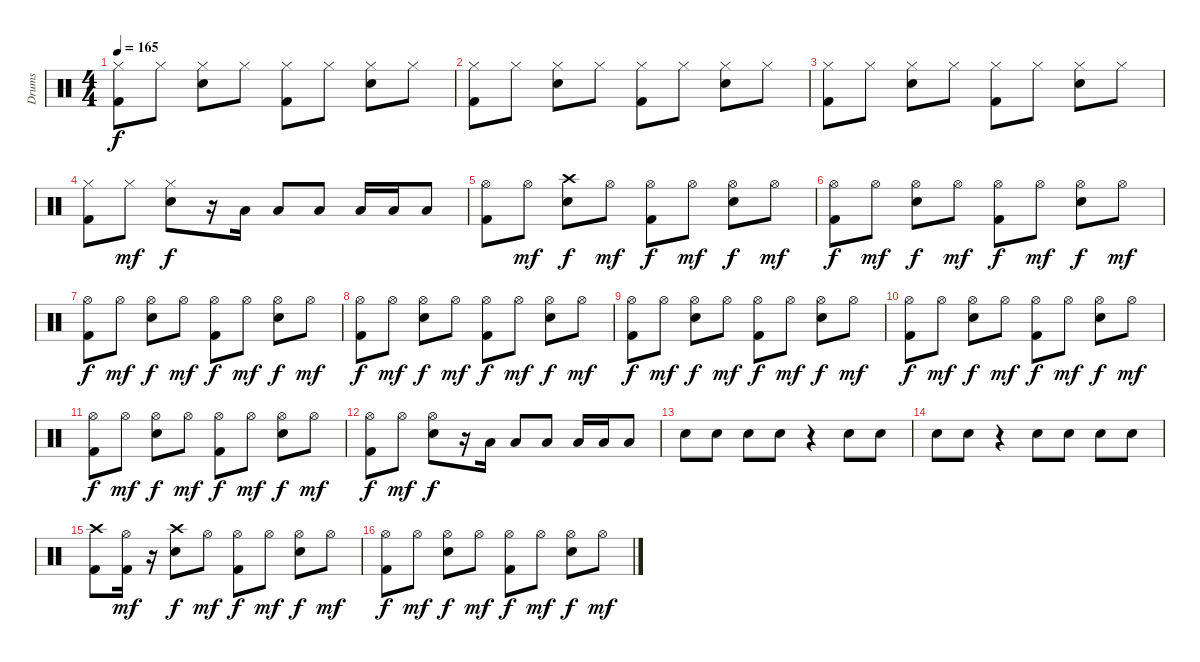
\track ("Drums" "Drums") {instrument percussion}
\staff {score}
\articulation defaults
\ts (4 4)
\tempo 165
\clef neutral
\ks c
("Hi-Hat (closed)" "Kick (hit) 2").8{dy f} "Hi-Hat (closed)".8 ("Hi-Hat (closed)" "Electric Snare (hit)").8 "Hi-Hat (closed)".8 ("Hi-Hat (closed)" "Kick (hit) 2").8 "Hi-Hat (closed)".8 ("Hi-Hat (closed)" "Electric Snare (hit)").8 "Hi-Hat (closed)".8 |
("Hi-Hat (closed)" "Kick (hit) 2").8 "Hi-Hat (closed)".8 ("Hi-Hat (closed)" "Electric Snare (hit)").8 "Hi-Hat (closed)".8 ("Hi-Hat (closed)" "Kick (hit) 2").8 "Hi-Hat (closed)".8 ("Hi-Hat (closed)" "Electric Snare (hit)").8 "Hi-Hat (closed)".8 |
("Hi-Hat (closed)" "Kick (hit) 2").8 "Hi-Hat (closed)".8 ("Hi-Hat (closed)" "Electric Snare (hit)").8 "Hi-Hat (closed)".8 ("Hi-Hat (closed)" "Kick (hit) 2").8 "Hi-Hat (closed)".8 ("Hi-Hat (closed)" "Electric Snare (hit)").8 "Hi-Hat (closed)".8 |
("Hi-Hat (closed)" "Kick (hit) 2").8 "Hi-Hat (closed)".8{dy mf} ("Hi-Hat (closed)" "Electric Snare (hit)").8{dy f} r.16 "Low Floor Tom (hit)".16 "Low Floor Tom (hit)".8 "Low Floor Tom (hit)".8 "Low Floor Tom (hit)".16 "Low Floor Tom (hit)".16 "Low Floor Tom (hit)".8 |
("Hi-Hat (open)" "Kick (hit) 2").8 "Hi-Hat (open)".8{dy mf} ("Crash high (hit)" "Electric Snare (hit)").8{dy f} "Hi-Hat (open)".8{dy mf} ("Hi-Hat (open)" "Kick (hit) 2").8{dy f} "Hi-Hat (open)".8{dy mf} ("Hi-Hat (open)" "Electric Snare (hit)").8{dy f} "Hi-Hat (open)".8{dy mf} |
("Hi-Hat (open)" "Kick (hit) 2").8{dy f} "Hi-Hat (open)".8{dy mf} ("Hi-Hat (open)" "Electric Snare (hit)").8{dy f} "Hi-Hat (open)".8{dy mf} ("Hi-Hat (open)" "Kick (hit) 2").8{dy f} "Hi-Hat (open)".8{dy mf} ("Hi-Hat (open)" "Electric Snare (hit)").8{dy f} "Hi-Hat (open)".8{dy mf} |
("Hi-Hat (open)" "Kick (hit) 2").8{dy f} "Hi-Hat (open)".8{dy mf} ("Hi-Hat (open)" "Electric Snare (hit)").8{dy f} "Hi-Hat (open)".8{dy mf} ("Hi-Hat (open)" "Kick (hit) 2").8{dy f} "Hi-Hat (open)".8{dy mf} ("Hi-Hat (open)" "Electric Snare (hit)").8{dy f} "Hi-Hat (open)".8{dy mf} |
("Hi-Hat (open)" "Kick (hit) 2").8{dy f} "Hi-Hat (open)".8{dy mf} ("Hi-Hat (open)" "Electric Snare (hit)").8{dy f} "Hi-Hat (open)".8{dy mf} ("Hi-Hat (open)" "Kick (hit) 2").8{dy f} "Hi-Hat (open)".8{dy mf} ("Hi-Hat (open)" "Electric Snare (hit)").8{dy f} "Hi-Hat (open)".8{dy mf} |
("Hi-Hat (open)" "Kick (hit) 2").8{dy f} "Hi-Hat (open)".8{dy mf} ("Hi-Hat (open)" "Electric Snare (hit)").8{dy f} "Hi-Hat (open)".8{dy mf} ("Hi-Hat (open)" "Kick (hit) 2").8{dy f} "Hi-Hat (open)".8{dy mf} ("Hi-Hat (open)" "Electric Snare (hit)").8{dy f} "Hi-Hat (open)".8{dy mf} |
("Hi-Hat (open)" "Kick (hit) 2").8{dy f} "Hi-Hat (open)".8{dy mf} ("Hi-Hat (open)" "Electric Snare (hit)").8{dy f} "Hi-Hat (open)".8{dy mf} ("Hi-Hat (open)" "Kick (hit) 2").8{dy f} "Hi-Hat (open)".8{dy mf} ("Hi-Hat (open)" "Electric Snare (hit)").8{dy f} "Hi-Hat (open)".8{dy mf} |
("Hi-Hat (open)" "Kick (hit) 2").8{dy f} "Hi-Hat (open)".8{dy mf} ("Hi-Hat (open)" "Electric Snare (hit)").8{dy f} "Hi-Hat (open)".8{dy mf} ("Hi-Hat (open)" "Kick (hit) 2").8{dy f} "Hi-Hat (open)".8{dy mf} ("Hi-Hat (open)" "Electric Snare (hit)").8{dy f} "Hi-Hat (open)".8{dy mf} |
("Hi-Hat (open)" "Kick (hit) 2").8{dy f} "Hi-Hat (open)".8{dy mf} ("Hi-Hat (open)" "Electric Snare (hit)").8{dy f} r.16 "Low Floor Tom (hit)".16 "Low Floor Tom (hit)".8 "Low Floor Tom (hit)".8 "Low Floor Tom (hit)".16 "Low Floor Tom (hit)".16 "Low Floor Tom (hit)".8 |
"Electric Snare (hit)".8 "Electric Snare (hit)".8 "Electric Snare (hit)".8 "Electric Snare (hit)".8 r.4 "Electric Snare (hit)".8 "Electric Snare (hit)".8 |
"Electric Snare (hit)".8 "Electric Snare (hit)".8 r.4 "Electric Snare (hit)".8 "Electric Snare (hit)".8 "Electric Snare (hit)".8 "Electric Snare (hit)".8 |
("Crash high (hit)" "Kick (hit) 2").8 ("Hi-Hat (open)" "Kick (hit) 2").16{dy mf} r.16 ("Crash high (hit)" "Electric Snare (hit)").8{dy f} "Hi-Hat (open)".8{dy mf} ("Hi-Hat (open)" "Kick (hit) 2").8{dy f} "Hi-Hat (open)".8{dy mf} ("Hi-Hat (open)" "Electric Snare (hit)").8{dy f} "Hi-Hat (open)".8{dy mf} |
("Hi-Hat (open)" "Kick (hit) 2").8{dy f} "Hi-Hat (open)".8{dy mf} ("Hi-Hat (open)" "Electric Snare (hit)").8{dy f} "Hi-Hat (open)".8{dy mf} ("Hi-Hat (open)" "Kick (hit) 2").8{dy f} "Hi-Hat (open)".8{dy mf} ("Hi-Hat (open)" "Electric Snare (hit)").8{dy f} "Hi-Hat (open)".8{dy mf}
